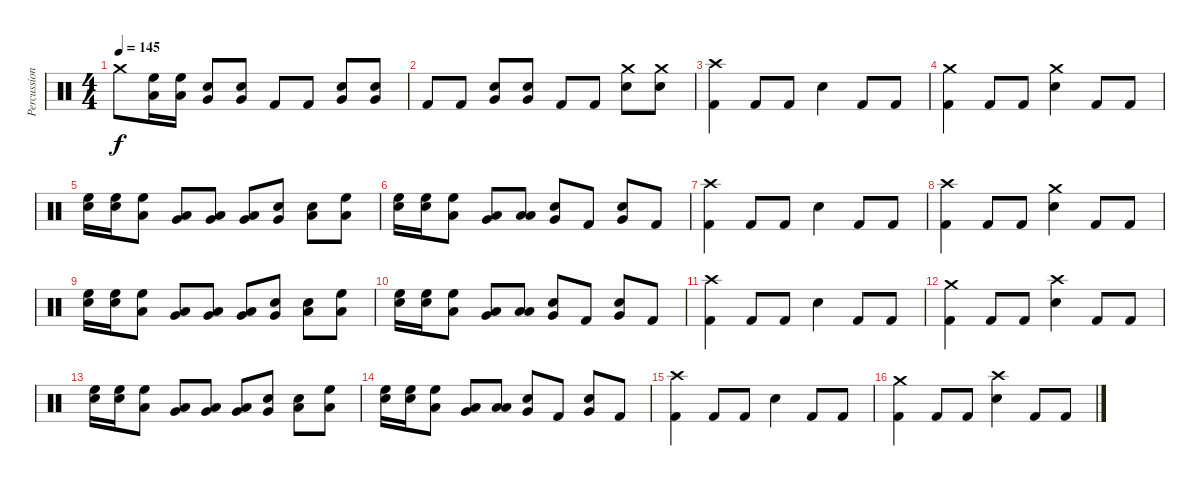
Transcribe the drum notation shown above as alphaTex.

\track ("Percussion" "Percussion") {instrument percussion}
\staff {score}
\articulation defaults
\ts (4 4)
\tempo 145
\clef neutral
\ks c "Crash medium (hit)".8{dy f}
("Low Tom (hit)" "High Floor Tom (hit)").16 ("Low Tom (hit)" "High Floor Tom (hit)").16 ("Very Low Tom (hit)" "Snare (hit) 2").8 ("Very Low Tom (hit)" "Snare (hit) 2").8 "Kick (hit) 2".8 "Kick (hit) 2".8 ("Very Low Tom (hit)" "Snare (hit) 2").8 ("Very Low Tom (hit)" "Snare (hit) 2").8 |
"Kick (hit) 2".8 "Kick (hit) 2".8 ("Snare (hit) 2" "Very Low Tom (hit)").8 ("Snare (hit) 2" "Very Low Tom (hit)").8 "Kick (hit) 2".8 "Kick (hit) 2".8 ("Crash medium (hit)" "Snare (hit) 2").8 ("Crash medium (hit)" "Snare (hit) 2").8 |
("Crash high (hit)" "Kick (hit) 2").4 "Kick (hit) 2".8 "Kick (hit) 2".8 "Snare (hit) 2".4 "Kick (hit) 2".8 "Kick (hit) 2".8 |
("Crash medium (hit)" "Kick (hit) 2").4 "Kick (hit) 2".8 "Kick (hit) 2".8 ("Crash medium (hit)" "Snare (hit) 2").4 "Kick (hit) 2".8 "Kick (hit) 2".8 |
("Snare (hit) 2" "High Floor Tom (hit)").16 ("Snare (hit) 2" "High Floor Tom (hit)").16 ("Low Tom (hit)" "High Floor Tom (hit)").8 ("Very Low Tom (hit)" "Low Tom (hit)").8 ("Low Tom (hit)" "Very Low Tom (hit)").8 ("Low Tom (hit)" "Very Low Tom (hit)").8 ("Snare (hit) 2" "Very Low Tom (hit)").8 ("Snare (hit) 2" "Low Tom (hit)").8 ("Low Tom (hit)" "High Floor Tom (hit)").8 |
("Snare (hit) 2" "High Floor Tom (hit)").16 ("Snare (hit) 2" "High Floor Tom (hit)").16 ("Low Tom (hit)" "High Floor Tom (hit)").8 ("Low Tom (hit)" "Very Low Tom (hit)").8 ("Low Tom (hit)" "Low Floor Tom (hit)").8 ("Snare (hit) 2" "Very Low Tom (hit)").8 "Kick (hit) 2".8 ("Snare (hit) 2" "Very Low Tom (hit)").8 "Kick (hit) 2".8 |
("Crash high (hit)" "Kick (hit) 2").4 "Kick (hit) 2".8 "Kick (hit) 2".8 "Snare (hit) 2".4 "Kick (hit) 2".8 "Kick (hit) 2".8 |
("Crash high (hit)" "Kick (hit) 2").4 "Kick (hit) 2".8 "Kick (hit) 2".8 ("Crash medium (hit)" "Snare (hit) 2").4 "Kick (hit) 2".8 "Kick (hit) 2".8 |
("Snare (hit) 2" "High Floor Tom (hit)").16 ("Snare (hit) 2" "High Floor Tom (hit)").16 ("Low Tom (hit)" "High Floor Tom (hit)").8 ("Very Low Tom (hit)" "Low Tom (hit)").8 ("Low Tom (hit)" "Very Low Tom (hit)").8 ("Low Tom (hit)" "Very Low Tom (hit)").8 ("Snare (hit) 2" "Very Low Tom (hit)").8 ("Snare (hit) 2" "Low Tom (hit)").8 ("Low Tom (hit)" "High Floor Tom (hit)").8 |
("Snare (hit) 2" "High Floor Tom (hit)").16 ("Snare (hit) 2" "High Floor Tom (hit)").16 ("Low Tom (hit)" "High Floor Tom (hit)").8 ("Low Tom (hit)" "Very Low Tom (hit)").8 ("Low Tom (hit)" "Low Floor Tom (hit)").8 ("Snare (hit) 2" "Very Low Tom (hit)").8 "Kick (hit) 2".8 ("Snare (hit) 2" "Very Low Tom (hit)").8 "Kick (hit) 2".8 |
("Crash high (hit)" "Kick (hit) 2").4 "Kick (hit) 2".8 "Kick (hit) 2".8 "Snare (hit) 2".4 "Kick (hit) 2".8 "Kick (hit) 2".8 |
("Crash medium (hit)" "Kick (hit) 2").4 "Kick (hit) 2".8 "Kick (hit) 2".8 ("Crash high (hit)" "Snare (hit) 2").4 "Kick (hit) 2".8 "Kick (hit) 2".8 |
("Snare (hit) 2" "High Floor Tom (hit)").16 ("Snare (hit) 2" "High Floor Tom (hit)").16 ("Low Tom (hit)" "High Floor Tom (hit)").8 ("Very Low Tom (hit)" "Low Tom (hit)").8 ("Low Tom (hit)" "Very Low Tom (hit)").8 ("Low Tom (hit)" "Very Low Tom (hit)").8 ("Snare (hit) 2" "Very Low Tom (hit)").8 ("Snare (hit) 2" "Low Tom (hit)").8 ("Low Tom (hit)" "High Floor Tom (hit)").8 |
("Snare (hit) 2" "High Floor Tom (hit)").16 ("Snare (hit) 2" "High Floor Tom (hit)").16 ("Low Tom (hit)" "High Floor Tom (hit)").8 ("Low Tom (hit)" "Very Low Tom (hit)").8 ("Low Tom (hit)" "Low Floor Tom (hit)").8 ("Snare (hit) 2" "Very Low Tom (hit)").8 "Kick (hit) 2".8 ("Snare (hit) 2" "Very Low Tom (hit)").8 "Kick (hit) 2".8 |
("Crash high (hit)" "Kick (hit) 2").4 "Kick (hit) 2".8 "Kick (hit) 2".8 "Snare (hit) 2".4 "Kick (hit) 2".8 "Kick (hit) 2".8 |
("Crash medium (hit)" "Kick (hit) 2").4 "Kick (hit) 2".8 "Kick (hit) 2".8 ("Crash high (hit)" "Snare (hit) 2").4 "Kick (hit) 2".8 "Kick (hit) 2".8
